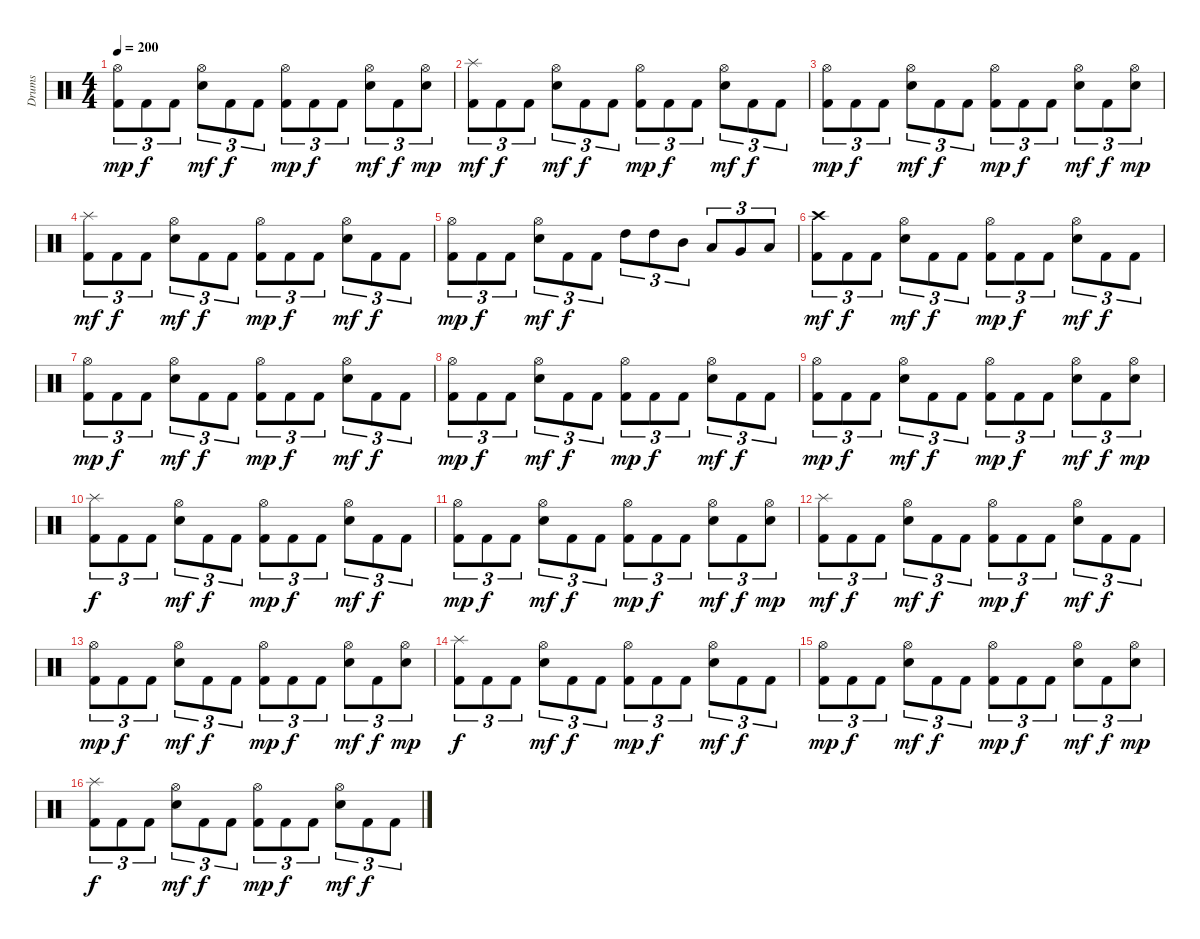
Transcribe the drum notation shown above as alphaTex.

\track ("Drums" "Drums") {instrument percussion}
\staff {score}
\articulation defaults
\ts (4 4)
\tempo 200
\clef neutral
\ks c
("Hi-Hat (open)" "Kick (hit) 2").8{tu (3 2) dy mp} "Kick (hit) 2".8{tu (3 2) dy f} "Kick (hit) 2".8{tu (3 2)} ("Hi-Hat (open)" "Snare (hit) 2").8{tu (3 2) dy mf} "Kick (hit) 2".8{tu (3 2) dy f} "Kick (hit) 2".8{tu (3 2)} ("Hi-Hat (open)" "Kick (hit) 2").8{tu (3 2) dy mp} "Kick (hit) 2".8{tu (3 2) dy f} "Kick (hit) 2".8{tu (3 2)} ("Hi-Hat (open)" "Snare (hit) 2").8{tu (3 2) dy mf} "Kick (hit) 2".8{tu (3 2) dy f} ("Hi-Hat (open)" "Snare (hit) 2").8{tu (3 2) dy mp} |
("Splash (hit)" "Kick (hit) 2").8{tu (3 2) dy mf} "Kick (hit) 2".8{tu (3 2) dy f} "Kick (hit) 2".8{tu (3 2)} ("Hi-Hat (open)" "Snare (hit) 2").8{tu (3 2) dy mf} "Kick (hit) 2".8{tu (3 2) dy f} "Kick (hit) 2".8{tu (3 2)} ("Hi-Hat (open)" "Kick (hit) 2").8{tu (3 2) dy mp} "Kick (hit) 2".8{tu (3 2) dy f} "Kick (hit) 2".8{tu (3 2)} ("Hi-Hat (open)" "Snare (hit) 2").8{tu (3 2) dy mf} "Kick (hit) 2".8{tu (3 2) dy f} "Kick (hit) 2".8{tu (3 2)} |
("Hi-Hat (open)" "Kick (hit) 2").8{tu (3 2) dy mp} "Kick (hit) 2".8{tu (3 2) dy f} "Kick (hit) 2".8{tu (3 2)} ("Hi-Hat (open)" "Snare (hit) 2").8{tu (3 2) dy mf} "Kick (hit) 2".8{tu (3 2) dy f} "Kick (hit) 2".8{tu (3 2)} ("Hi-Hat (open)" "Kick (hit) 2").8{tu (3 2) dy mp} "Kick (hit) 2".8{tu (3 2) dy f} "Kick (hit) 2".8{tu (3 2)} ("Hi-Hat (open)" "Snare (hit) 2").8{tu (3 2) dy mf} "Kick (hit) 2".8{tu (3 2) dy f} ("Hi-Hat (open)" "Snare (hit) 2").8{tu (3 2) dy mp} |
("Splash (hit)" "Kick (hit) 2").8{tu (3 2) dy mf} "Kick (hit) 2".8{tu (3 2) dy f} "Kick (hit) 2".8{tu (3 2)} ("Hi-Hat (open)" "Snare (hit) 2").8{tu (3 2) dy mf} "Kick (hit) 2".8{tu (3 2) dy f} "Kick (hit) 2".8{tu (3 2)} ("Hi-Hat (open)" "Kick (hit) 2").8{tu (3 2) dy mp} "Kick (hit) 2".8{tu (3 2) dy f} "Kick (hit) 2".8{tu (3 2)} ("Hi-Hat (open)" "Snare (hit) 2").8{tu (3 2) dy mf} "Kick (hit) 2".8{tu (3 2) dy f} "Kick (hit) 2".8{tu (3 2)} |
("Hi-Hat (open)" "Kick (hit) 2").8{tu (3 2) dy mp} "Kick (hit) 2".8{tu (3 2) dy f} "Kick (hit) 2".8{tu (3 2)} ("Hi-Hat (open)" "Snare (hit) 2").8{tu (3 2) dy mf} "Kick (hit) 2".8{tu (3 2) dy f} "Kick (hit) 2".8{tu (3 2)} "High Tom (hit)".8{tu (3 2)} "High Tom (hit)".8{tu (3 2)} "Mid Tom (hit)".8{tu (3 2)} "Low Tom (hit)".8{tu (3 2)} "Very Low Tom (hit)".8{tu (3 2)} "Low Floor Tom (hit)".8{tu (3 2)} |
("Crash high (hit)" "Kick (hit) 2").8{tu (3 2) dy mf} "Kick (hit) 2".8{tu (3 2) dy f} "Kick (hit) 2".8{tu (3 2)} ("Hi-Hat (open)" "Snare (hit) 2").8{tu (3 2) dy mf} "Kick (hit) 2".8{tu (3 2) dy f} "Kick (hit) 2".8{tu (3 2)} ("Hi-Hat (open)" "Kick (hit) 2").8{tu (3 2) dy mp} "Kick (hit) 2".8{tu (3 2) dy f} "Kick (hit) 2".8{tu (3 2)} ("Hi-Hat (open)" "Snare (hit) 2").8{tu (3 2) dy mf} "Kick (hit) 2".8{tu (3 2) dy f} "Kick (hit) 2".8{tu (3 2)} |
("Hi-Hat (open)" "Kick (hit) 2").8{tu (3 2) dy mp} "Kick (hit) 2".8{tu (3 2) dy f} "Kick (hit) 2".8{tu (3 2)} ("Hi-Hat (open)" "Snare (hit) 2").8{tu (3 2) dy mf} "Kick (hit) 2".8{tu (3 2) dy f} "Kick (hit) 2".8{tu (3 2)} ("Hi-Hat (open)" "Kick (hit) 2").8{tu (3 2) dy mp} "Kick (hit) 2".8{tu (3 2) dy f} "Kick (hit) 2".8{tu (3 2)} ("Hi-Hat (open)" "Snare (hit) 2").8{tu (3 2) dy mf} "Kick (hit) 2".8{tu (3 2) dy f} "Kick (hit) 2".8{tu (3 2)} |
("Hi-Hat (open)" "Kick (hit) 2").8{tu (3 2) dy mp} "Kick (hit) 2".8{tu (3 2) dy f} "Kick (hit) 2".8{tu (3 2)} ("Hi-Hat (open)" "Snare (hit) 2").8{tu (3 2) dy mf} "Kick (hit) 2".8{tu (3 2) dy f} "Kick (hit) 2".8{tu (3 2)} ("Hi-Hat (open)" "Kick (hit) 2").8{tu (3 2) dy mp} "Kick (hit) 2".8{tu (3 2) dy f} "Kick (hit) 2".8{tu (3 2)} ("Hi-Hat (open)" "Snare (hit) 2").8{tu (3 2) dy mf} "Kick (hit) 2".8{tu (3 2) dy f} "Kick (hit) 2".8{tu (3 2)} |
("Hi-Hat (open)" "Kick (hit) 2").8{tu (3 2) dy mp} "Kick (hit) 2".8{tu (3 2) dy f} "Kick (hit) 2".8{tu (3 2)} ("Hi-Hat (open)" "Snare (hit) 2").8{tu (3 2) dy mf} "Kick (hit) 2".8{tu (3 2) dy f} "Kick (hit) 2".8{tu (3 2)} ("Hi-Hat (open)" "Kick (hit) 2").8{tu (3 2) dy mp} "Kick (hit) 2".8{tu (3 2) dy f} "Kick (hit) 2".8{tu (3 2)} ("Hi-Hat (open)" "Snare (hit) 2").8{tu (3 2) dy mf} "Kick (hit) 2".8{tu (3 2) dy f} ("Hi-Hat (open)" "Snare (hit) 2").8{tu (3 2) dy mp} |
("Splash (hit)" "Kick (hit) 2").8{tu (3 2) dy f} "Kick (hit) 2".8{tu (3 2)} "Kick (hit) 2".8{tu (3 2)} ("Hi-Hat (open)" "Snare (hit) 2").8{tu (3 2) dy mf} "Kick (hit) 2".8{tu (3 2) dy f} "Kick (hit) 2".8{tu (3 2)} ("Hi-Hat (open)" "Kick (hit) 2").8{tu (3 2) dy mp} "Kick (hit) 2".8{tu (3 2) dy f} "Kick (hit) 2".8{tu (3 2)} ("Hi-Hat (open)" "Snare (hit) 2").8{tu (3 2) dy mf} "Kick (hit) 2".8{tu (3 2) dy f} "Kick (hit) 2".8{tu (3 2)} |
("Hi-Hat (open)" "Kick (hit) 2").8{tu (3 2) dy mp} "Kick (hit) 2".8{tu (3 2) dy f} "Kick (hit) 2".8{tu (3 2)} ("Hi-Hat (open)" "Snare (hit) 2").8{tu (3 2) dy mf} "Kick (hit) 2".8{tu (3 2) dy f} "Kick (hit) 2".8{tu (3 2)} ("Hi-Hat (open)" "Kick (hit) 2").8{tu (3 2) dy mp} "Kick (hit) 2".8{tu (3 2) dy f} "Kick (hit) 2".8{tu (3 2)} ("Hi-Hat (open)" "Snare (hit) 2").8{tu (3 2) dy mf} "Kick (hit) 2".8{tu (3 2) dy f} ("Hi-Hat (open)" "Snare (hit) 2").8{tu (3 2) dy mp} |
("Splash (hit)" "Kick (hit) 2").8{tu (3 2) dy mf} "Kick (hit) 2".8{tu (3 2) dy f} "Kick (hit) 2".8{tu (3 2)} ("Hi-Hat (open)" "Snare (hit) 2").8{tu (3 2) dy mf} "Kick (hit) 2".8{tu (3 2) dy f} "Kick (hit) 2".8{tu (3 2)} ("Hi-Hat (open)" "Kick (hit) 2").8{tu (3 2) dy mp} "Kick (hit) 2".8{tu (3 2) dy f} "Kick (hit) 2".8{tu (3 2)} ("Hi-Hat (open)" "Snare (hit) 2").8{tu (3 2) dy mf} "Kick (hit) 2".8{tu (3 2) dy f} "Kick (hit) 2".8{tu (3 2)} |
("Hi-Hat (open)" "Kick (hit) 2").8{tu (3 2) dy mp} "Kick (hit) 2".8{tu (3 2) dy f} "Kick (hit) 2".8{tu (3 2)} ("Hi-Hat (open)" "Snare (hit) 2").8{tu (3 2) dy mf} "Kick (hit) 2".8{tu (3 2) dy f} "Kick (hit) 2".8{tu (3 2)} ("Hi-Hat (open)" "Kick (hit) 2").8{tu (3 2) dy mp} "Kick (hit) 2".8{tu (3 2) dy f} "Kick (hit) 2".8{tu (3 2)} ("Hi-Hat (open)" "Snare (hit) 2").8{tu (3 2) dy mf} "Kick (hit) 2".8{tu (3 2) dy f} ("Hi-Hat (open)" "Snare (hit) 2").8{tu (3 2) dy mp} |
("Splash (hit)" "Kick (hit) 2").8{tu (3 2) dy f} "Kick (hit) 2".8{tu (3 2)} "Kick (hit) 2".8{tu (3 2)} ("Hi-Hat (open)" "Snare (hit) 2").8{tu (3 2) dy mf} "Kick (hit) 2".8{tu (3 2) dy f} "Kick (hit) 2".8{tu (3 2)} ("Hi-Hat (open)" "Kick (hit) 2").8{tu (3 2) dy mp} "Kick (hit) 2".8{tu (3 2) dy f} "Kick (hit) 2".8{tu (3 2)} ("Hi-Hat (open)" "Snare (hit) 2").8{tu (3 2) dy mf} "Kick (hit) 2".8{tu (3 2) dy f} "Kick (hit) 2".8{tu (3 2)} |
("Hi-Hat (open)" "Kick (hit) 2").8{tu (3 2) dy mp} "Kick (hit) 2".8{tu (3 2) dy f} "Kick (hit) 2".8{tu (3 2)} ("Hi-Hat (open)" "Snare (hit) 2").8{tu (3 2) dy mf} "Kick (hit) 2".8{tu (3 2) dy f} "Kick (hit) 2".8{tu (3 2)} ("Hi-Hat (open)" "Kick (hit) 2").8{tu (3 2) dy mp} "Kick (hit) 2".8{tu (3 2) dy f} "Kick (hit) 2".8{tu (3 2)} ("Hi-Hat (open)" "Snare (hit) 2").8{tu (3 2) dy mf} "Kick (hit) 2".8{tu (3 2) dy f} ("Hi-Hat (open)" "Snare (hit) 2").8{tu (3 2) dy mp} |
("Splash (hit)" "Kick (hit) 2").8{tu (3 2) dy f} "Kick (hit) 2".8{tu (3 2)} "Kick (hit) 2".8{tu (3 2)} ("Hi-Hat (open)" "Snare (hit) 2").8{tu (3 2) dy mf} "Kick (hit) 2".8{tu (3 2) dy f} "Kick (hit) 2".8{tu (3 2)} ("Hi-Hat (open)" "Kick (hit) 2").8{tu (3 2) dy mp} "Kick (hit) 2".8{tu (3 2) dy f} "Kick (hit) 2".8{tu (3 2)} ("Hi-Hat (open)" "Snare (hit) 2").8{tu (3 2) dy mf} "Kick (hit) 2".8{tu (3 2) dy f} "Kick (hit) 2".8{tu (3 2)}
